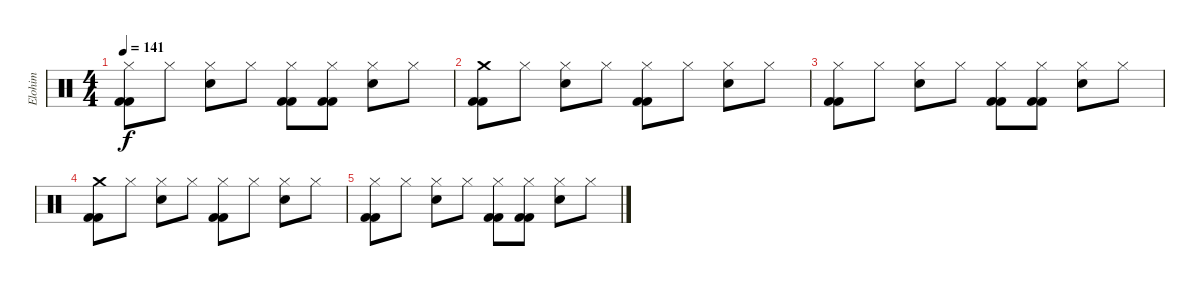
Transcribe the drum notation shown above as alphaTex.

\track ("Elohim" "Elohim") {instrument percussion}
\staff {score}
\articulation defaults
\ts (4 4)
\tempo 141
\clef neutral
\ks c
("Hi-Hat (closed)" "Kick (hit) 2" "Kick (hit) 2").8{dy f} "Hi-Hat (closed)".8 ("Hi-Hat (closed)" "Snare (hit) 2").8 "Hi-Hat (closed)".8 ("Hi-Hat (closed)" "Kick (hit) 2" "Kick (hit) 2").8 ("Hi-Hat (closed)" "Kick (hit) 2" "Kick (hit) 2").8 ("Hi-Hat (closed)" "Snare (hit) 2").8 "Hi-Hat (closed)".8 |
("Crash medium (hit)" "Kick (hit) 2" "Kick (hit) 2").8 "Hi-Hat (closed)".8 ("Hi-Hat (closed)" "Snare (hit) 2").8 "Hi-Hat (closed)".8 ("Hi-Hat (closed)" "Kick (hit) 2" "Kick (hit) 2").8 "Hi-Hat (closed)".8 ("Hi-Hat (closed)" "Snare (hit) 2").8 "Hi-Hat (closed)".8 |
("Hi-Hat (closed)" "Kick (hit) 2" "Kick (hit) 2").8 "Hi-Hat (closed)".8 ("Hi-Hat (closed)" "Snare (hit) 2").8 "Hi-Hat (closed)".8 ("Hi-Hat (closed)" "Kick (hit) 2" "Kick (hit) 2").8 ("Hi-Hat (closed)" "Kick (hit) 2" "Kick (hit) 2").8 ("Hi-Hat (closed)" "Snare (hit) 2").8 "Hi-Hat (closed)".8 |
("Crash medium (hit)" "Kick (hit) 2" "Kick (hit) 2").8 "Hi-Hat (closed)".8 ("Hi-Hat (closed)" "Snare (hit) 2").8 "Hi-Hat (closed)".8 ("Hi-Hat (closed)" "Kick (hit) 2" "Kick (hit) 2").8 "Hi-Hat (closed)".8 ("Hi-Hat (closed)" "Snare (hit) 2").8 "Hi-Hat (closed)".8 |
("Hi-Hat (closed)" "Kick (hit) 2" "Kick (hit) 2").8 "Hi-Hat (closed)".8 ("Hi-Hat (closed)" "Snare (hit) 2").8 "Hi-Hat (closed)".8 ("Hi-Hat (closed)" "Kick (hit) 2" "Kick (hit) 2").8 ("Hi-Hat (closed)" "Kick (hit) 2" "Kick (hit) 2").8 ("Hi-Hat (closed)" "Snare (hit) 2").8 "Hi-Hat (closed)".8
